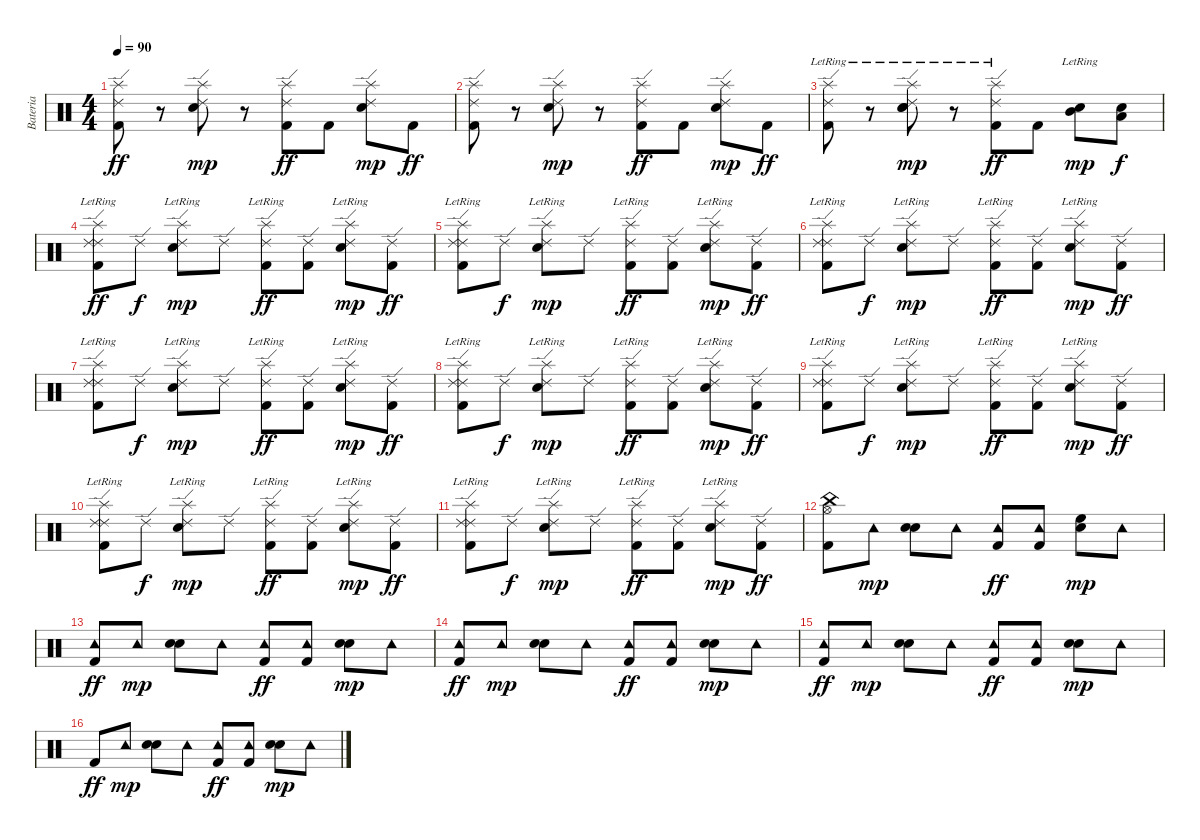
\track ("Bateria" "Bateria") {instrument percussion}
\staff {score}
\articulation defaults
\ts (4 4)
\tempo 90
\clef neutral
\ks c
("Splash (hit)" "Ride (edge) 2" "Kick (hit) 2").8{dy ff} r.8 ("Splash (hit)" "Electric Snare (hit)" "Ride (edge) 2").8{dy mp} r.8 ("Splash (hit)" "Ride (edge) 2" "Kick (hit) 2").8{dy ff} "Kick (hit) 2".8 ("Splash (hit)" "Electric Snare (hit)" "Ride (edge) 2").8{dy mp} "Kick (hit) 2".8{dy ff} |
("Splash (hit)" "Ride (edge) 2" "Kick (hit) 2").8 r.8 ("Splash (hit)" "Electric Snare (hit)" "Ride (edge) 2").8{dy mp} r.8 ("Splash (hit)" "Ride (edge) 2" "Kick (hit) 2").8{dy ff} "Kick (hit) 2".8 ("Splash (hit)" "Electric Snare (hit)" "Ride (edge) 2").8{dy mp} "Kick (hit) 2".8{dy ff} |
("Splash (hit)"{lr} "Ride (edge) 2" "Kick (hit) 2").8 r.8 ("Splash (hit)"{lr} "Electric Snare (hit)" "Ride (edge) 2" "Snare (hit)").8{dy mp} r.8 ("Splash (hit)"{lr} "Ride (edge) 2" "Kick (hit) 2").8{dy ff} "Kick (hit) 2".8 ("Electric Snare (hit)"{lr} "Mid Tom (hit)").8{dy mp} ("Electric Snare (hit)" "Low Tom (hit)").8{dy f} |
("Splash (hit)"{lr} "Ride (edge) 2" "Ride (edge) 2" "Kick (hit) 2").8{dy ff} "Ride (edge) 2".8{dy f} ("Splash (hit)"{lr} "Electric Snare (hit)" "Ride (edge) 2").8{dy mp} "Ride (edge) 2".8 ("Splash (hit)"{lr} "Ride (edge) 2" "Kick (hit) 2").8{dy ff} ("Ride (edge) 2" "Kick (hit) 2").8 ("Splash (hit)"{lr} "Electric Snare (hit)" "Ride (edge) 2").8{dy mp} ("Ride (edge) 2" "Kick (hit) 2").8{dy ff} |
("Splash (hit)"{lr} "Ride (edge) 2" "Ride (edge) 2" "Kick (hit) 2").8 "Ride (edge) 2".8{dy f} ("Splash (hit)"{lr} "Electric Snare (hit)" "Ride (edge) 2").8{dy mp} "Ride (edge) 2".8 ("Splash (hit)"{lr} "Ride (edge) 2" "Kick (hit) 2").8{dy ff} ("Ride (edge) 2" "Kick (hit) 2").8 ("Splash (hit)"{lr} "Electric Snare (hit)" "Ride (edge) 2").8{dy mp} ("Ride (edge) 2" "Kick (hit) 2").8{dy ff} |
("Splash (hit)"{lr} "Ride (edge) 2" "Ride (edge) 2" "Kick (hit) 2").8 "Ride (edge) 2".8{dy f} ("Splash (hit)"{lr} "Electric Snare (hit)" "Ride (edge) 2").8{dy mp} "Ride (edge) 2".8 ("Splash (hit)"{lr} "Ride (edge) 2" "Kick (hit) 2").8{dy ff} ("Ride (edge) 2" "Kick (hit) 2").8 ("Splash (hit)"{lr} "Electric Snare (hit)" "Ride (edge) 2").8{dy mp} ("Ride (edge) 2" "Kick (hit) 2").8{dy ff} |
("Splash (hit)"{lr} "Ride (edge) 2" "Ride (edge) 2" "Kick (hit) 2").8 "Ride (edge) 2".8{dy f} ("Splash (hit)"{lr} "Electric Snare (hit)" "Ride (edge) 2").8{dy mp} "Ride (edge) 2".8 ("Splash (hit)"{lr} "Ride (edge) 2" "Kick (hit) 2").8{dy ff} ("Ride (edge) 2" "Kick (hit) 2").8 ("Splash (hit)"{lr} "Electric Snare (hit)" "Ride (edge) 2").8{dy mp} ("Ride (edge) 2" "Kick (hit) 2").8{dy ff} |
("Splash (hit)"{lr} "Ride (edge) 2" "Ride (edge) 2" "Kick (hit) 2").8 "Ride (edge) 2".8{dy f} ("Splash (hit)"{lr} "Electric Snare (hit)" "Ride (edge) 2").8{dy mp} "Ride (edge) 2".8 ("Splash (hit)"{lr} "Ride (edge) 2" "Kick (hit) 2").8{dy ff} ("Ride (edge) 2" "Kick (hit) 2").8 ("Splash (hit)"{lr} "Electric Snare (hit)" "Ride (edge) 2").8{dy mp} ("Ride (edge) 2" "Kick (hit) 2").8{dy ff} |
("Splash (hit)"{lr} "Ride (edge) 2" "Ride (edge) 2" "Kick (hit) 2").8 "Ride (edge) 2".8{dy f} ("Splash (hit)"{lr} "Electric Snare (hit)" "Ride (edge) 2").8{dy mp} "Ride (edge) 2".8 ("Splash (hit)"{lr} "Ride (edge) 2" "Kick (hit) 2").8{dy ff} ("Ride (edge) 2" "Kick (hit) 2").8 ("Splash (hit)"{lr} "Electric Snare (hit)" "Ride (edge) 2").8{dy mp} ("Ride (edge) 2" "Kick (hit) 2").8{dy ff} |
("Splash (hit)"{lr} "Ride (edge) 2" "Ride (edge) 2" "Kick (hit) 2").8 "Ride (edge) 2".8{dy f} ("Splash (hit)"{lr} "Electric Snare (hit)" "Ride (edge) 2").8{dy mp} "Ride (edge) 2".8 ("Splash (hit)"{lr} "Ride (edge) 2" "Kick (hit) 2").8{dy ff} ("Ride (edge) 2" "Kick (hit) 2").8 ("Splash (hit)"{lr} "Electric Snare (hit)" "Ride (edge) 2").8{dy mp} ("Ride (edge) 2" "Kick (hit) 2").8{dy ff} |
("Splash (hit)"{lr} "Ride (edge) 2" "Ride (edge) 2" "Kick (hit) 2").8 "Ride (edge) 2".8{dy f} ("Splash (hit)"{lr} "Electric Snare (hit)" "Ride (edge) 2").8{dy mp} "Ride (edge) 2".8 ("Splash (hit)"{lr} "Ride (edge) 2" "Kick (hit) 2").8{dy ff} ("Ride (edge) 2" "Kick (hit) 2").8 ("Splash (hit)"{lr} "Electric Snare (hit)" "Ride (edge) 2").8{dy mp} ("Ride (edge) 2" "Kick (hit) 2").8{dy ff} |
("Hi-Hat (open)" "China (hit)" "Kick (hit) 2").8 "Tambourine (hit)".8{dy mp} ("Electric Snare (hit)" "Electric Snare (hit)").8 "Tambourine (hit)".8 ("Tambourine (hit)" "Kick (hit) 2").8{dy ff} ("Tambourine (hit)" "Kick (hit) 2").8 ("High Floor Tom (hit)" "Electric Snare (hit)").8{dy mp} "Tambourine (hit)".8 |
("Tambourine (hit)" "Kick (hit) 2").8{dy ff} "Tambourine (hit)".8{dy mp} ("Electric Snare (hit)" "Electric Snare (hit)").8 "Tambourine (hit)".8 ("Tambourine (hit)" "Kick (hit) 2").8{dy ff} ("Tambourine (hit)" "Kick (hit) 2").8 ("Electric Snare (hit)" "Electric Snare (hit)").8{dy mp} "Tambourine (hit)".8 |
("Tambourine (hit)" "Kick (hit) 2").8{dy ff} "Tambourine (hit)".8{dy mp} ("Electric Snare (hit)" "Electric Snare (hit)").8 "Tambourine (hit)".8 ("Tambourine (hit)" "Kick (hit) 2").8{dy ff} ("Tambourine (hit)" "Kick (hit) 2").8 ("Electric Snare (hit)" "Electric Snare (hit)").8{dy mp} "Tambourine (hit)".8 |
("Tambourine (hit)" "Kick (hit) 2").8{dy ff} "Tambourine (hit)".8{dy mp} ("Electric Snare (hit)" "Electric Snare (hit)").8 "Tambourine (hit)".8 ("Tambourine (hit)" "Kick (hit) 2").8{dy ff} ("Tambourine (hit)" "Kick (hit) 2").8 ("Electric Snare (hit)" "Electric Snare (hit)").8{dy mp} "Tambourine (hit)".8 |
"Kick (hit) 2".8{dy ff} "Tambourine (hit)".8{dy mp} ("Electric Snare (hit)" "Electric Snare (hit)").8 "Tambourine (hit)".8 ("Tambourine (hit)" "Kick (hit) 2").8{dy ff} ("Tambourine (hit)" "Kick (hit) 2").8 ("Electric Snare (hit)" "Electric Snare (hit)").8{dy mp} "Tambourine (hit)".8
